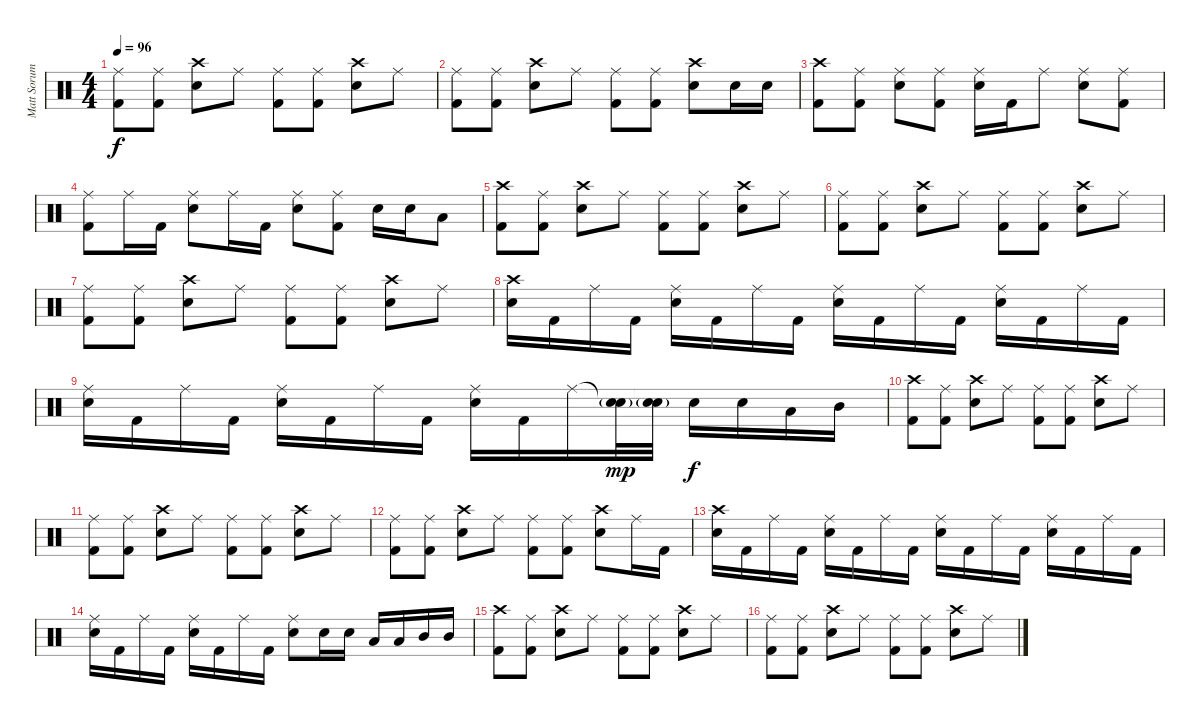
\track ("Matt Sorum" "Matt Sorum") {instrument percussion}
\staff {score}
\articulation defaults
\ts (4 4)
\tempo 96
\clef neutral
\ks c
("Ride (middle)" "Kick (hit) 2").8{dy f} ("Ride (middle)" "Kick (hit) 2").8 ("Crash high (hit)" "Electric Snare (hit)").8 "Ride (middle)".8 ("Ride (middle)" "Kick (hit) 2").8 ("Ride (middle)" "Kick (hit) 2").8 ("Crash high (hit)" "Electric Snare (hit)").8 "Ride (middle)".8 |
("Ride (middle)" "Kick (hit) 2").8 ("Ride (middle)" "Kick (hit) 2").8 ("Crash high (hit)" "Electric Snare (hit)").8 "Ride (middle)".8 ("Ride (middle)" "Kick (hit) 2").8 ("Ride (middle)" "Kick (hit) 2").8 ("Crash high (hit)" "Electric Snare (hit)").8 "Electric Snare (hit)".16 "Electric Snare (hit)".16 |
("Crash high (hit)" "Kick (hit) 2").8 ("Ride (middle)" "Kick (hit) 2").8 ("Ride (middle)" "Electric Snare (hit)").8 ("Ride (middle)" "Kick (hit) 2").8 ("Ride (middle)" "Electric Snare (hit)").16 "Kick (hit) 2".16 "Ride (middle)".8 ("Ride (middle)" "Electric Snare (hit)").8 ("Ride (middle)" "Kick (hit) 2").8 |
("Ride (middle)" "Kick (hit) 2").8 "Ride (middle)".16 "Kick (hit) 2".16 ("Ride (middle)" "Electric Snare (hit)").8 "Ride (middle)".16 "Kick (hit) 2".16 ("Ride (middle)" "Electric Snare (hit)").8 ("Ride (middle)" "Kick (hit) 2").8 "Electric Snare (hit)".16 "Electric Snare (hit)".16 "Low Tom (hit)".8 |
("Crash high (hit)" "Kick (hit) 2").8 ("Ride (middle)" "Kick (hit) 2").8 ("Crash high (hit)" "Electric Snare (hit)").8 "Ride (middle)".8 ("Ride (middle)" "Kick (hit) 2").8 ("Ride (middle)" "Kick (hit) 2").8 ("Crash high (hit)" "Electric Snare (hit)").8 "Ride (middle)".8 |
("Ride (middle)" "Kick (hit) 2").8 ("Ride (middle)" "Kick (hit) 2").8 ("Crash high (hit)" "Electric Snare (hit)").8 "Ride (middle)".8 ("Ride (middle)" "Kick (hit) 2").8 ("Ride (middle)" "Kick (hit) 2").8 ("Crash high (hit)" "Electric Snare (hit)").8 "Ride (middle)".8 |
("Ride (middle)" "Kick (hit) 2").8 ("Ride (middle)" "Kick (hit) 2").8 ("Crash high (hit)" "Electric Snare (hit)").8 "Ride (middle)".8 ("Ride (middle)" "Kick (hit) 2").8 ("Ride (middle)" "Kick (hit) 2").8 ("Crash high (hit)" "Electric Snare (hit)").8 "Ride (middle)".8 |
("Crash high (hit)" "Electric Snare (hit)").16 "Kick (hit) 2".16 "Ride (middle)".16 "Kick (hit) 2".16 ("Ride (middle)" "Electric Snare (hit)").16 "Kick (hit) 2".16 "Ride (middle)".16 "Kick (hit) 2".16 ("Ride (middle)" "Electric Snare (hit)").16 "Kick (hit) 2".16 "Ride (middle)".16 "Kick (hit) 2".16 ("Ride (middle)" "Electric Snare (hit)").16 "Kick (hit) 2".16 "Ride (middle)".16 "Kick (hit) 2".16 |
("Ride (middle)" "Electric Snare (hit)").16 "Kick (hit) 2".16 "Ride (middle)".16 "Kick (hit) 2".16 ("Ride (middle)" "Electric Snare (hit)").16 "Kick (hit) 2".16 "Ride (middle)".16 "Kick (hit) 2".16 ("Ride (middle)" "Electric Snare (hit)").16 "Kick (hit) 2".16 "Ride (middle)".16 ("Snare (hit)"{t} "Electric Snare (hit)"{g}).32{dy mp} ("Snare (hit)"{t} "Electric Snare (hit)"{g}).32 "Electric Snare (hit)".16{dy f} "Electric Snare (hit)".16 "Low Tom (hit)".16 "Mid Tom (hit)".16 |
("Crash high (hit)" "Kick (hit) 2").8 ("Ride (middle)" "Kick (hit) 2").8 ("Crash high (hit)" "Electric Snare (hit)").8 "Ride (middle)".8 ("Ride (middle)" "Kick (hit) 2").8 ("Ride (middle)" "Kick (hit) 2").8 ("Crash high (hit)" "Electric Snare (hit)").8 "Ride (middle)".8 |
("Ride (middle)" "Kick (hit) 2").8 ("Ride (middle)" "Kick (hit) 2").8 ("Crash high (hit)" "Electric Snare (hit)").8 "Ride (middle)".8 ("Ride (middle)" "Kick (hit) 2").8 ("Ride (middle)" "Kick (hit) 2").8 ("Crash high (hit)" "Electric Snare (hit)").8 "Ride (middle)".8 |
("Ride (middle)" "Kick (hit) 2").8 ("Ride (middle)" "Kick (hit) 2").8 ("Crash high (hit)" "Electric Snare (hit)").8 "Ride (middle)".8 ("Ride (middle)" "Kick (hit) 2").8 ("Ride (middle)" "Kick (hit) 2").8 ("Crash high (hit)" "Electric Snare (hit)").8 "Ride (middle)".16 "Kick (hit) 2".16 |
("Crash high (hit)" "Electric Snare (hit)").16 "Kick (hit) 2".16 "Ride (middle)".16 "Kick (hit) 2".16 ("Ride (middle)" "Electric Snare (hit)").16 "Kick (hit) 2".16 "Ride (middle)".16 "Kick (hit) 2".16 ("Ride (middle)" "Electric Snare (hit)").16 "Kick (hit) 2".16 "Ride (middle)".16 "Kick (hit) 2".16 ("Ride (middle)" "Electric Snare (hit)").16 "Kick (hit) 2".16 "Ride (middle)".16 "Kick (hit) 2".16 |
("Ride (middle)" "Electric Snare (hit)").16 "Kick (hit) 2".16 "Ride (middle)".16 "Kick (hit) 2".16 ("Ride (middle)" "Electric Snare (hit)").16 "Kick (hit) 2".16 "Ride (middle)".16 "Kick (hit) 2".16 ("Ride (middle)" "Electric Snare (hit)").8 "Electric Snare (hit)".16 "Electric Snare (hit)".16 "Low Tom (hit)".16 "Low Tom (hit)".16 "Mid Tom (hit)".16 "Mid Tom (hit)".16 |
("Crash high (hit)" "Kick (hit) 2").8 ("Ride (middle)" "Kick (hit) 2").8 ("Crash high (hit)" "Electric Snare (hit)").8 "Ride (middle)".8 ("Ride (middle)" "Kick (hit) 2").8 ("Ride (middle)" "Kick (hit) 2").8 ("Crash high (hit)" "Electric Snare (hit)").8 "Ride (middle)".8 |
("Ride (middle)" "Kick (hit) 2").8 ("Ride (middle)" "Kick (hit) 2").8 ("Crash high (hit)" "Electric Snare (hit)").8 "Ride (middle)".8 ("Ride (middle)" "Kick (hit) 2").8 ("Ride (middle)" "Kick (hit) 2").8 ("Crash high (hit)" "Electric Snare (hit)").8 "Ride (middle)".8
